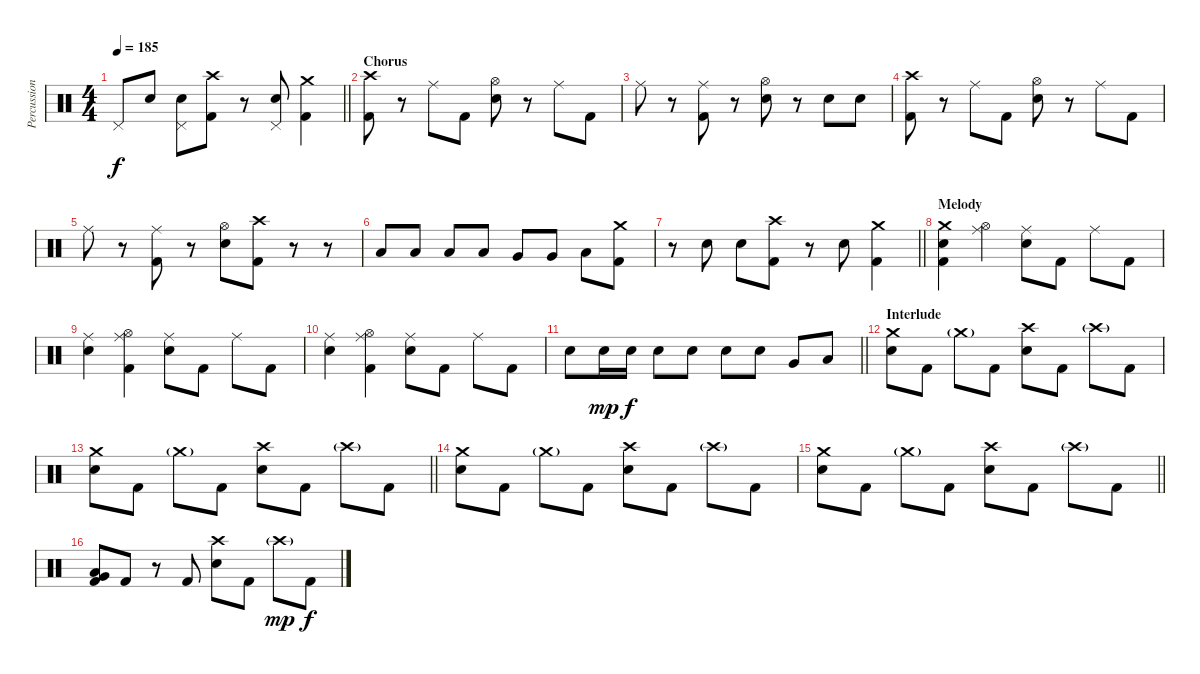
\track ("Percussion" "Percussion") {instrument percussion}
\staff {score}
\articulation defaults
\ts (4 4)
\tempo 185
\clef neutral
\barLineRight lightlight
\ks c "Pedal Hi-Hat (hit)".8{dy f} "Electric Snare (hit)".8
("Pedal Hi-Hat (hit)" "Electric Snare (hit)").8 ("Crash high (hit)" "Kick (hit) 2").8 r.8 ("Pedal Hi-Hat (hit)" "Electric Snare (hit)").8 ("Crash medium (hit)" "Kick (hit) 2").4 |
\section ("" "Chorus")
("Crash high (hit)" "Kick (hit) 2").8 r.8 "Ride (middle)".8 "Kick (hit) 2".8 ("Hi-Hat (open)" "Electric Snare (hit)").8 r.8 "Ride (middle)".8 "Kick (hit) 2".8 |
"Ride (middle)".8 r.8 ("Ride (middle)" "Kick (hit) 2").8 r.8 ("Hi-Hat (open)" "Electric Snare (hit)").8 r.8 "Electric Snare (hit)".8 "Electric Snare (hit)".8 |
("Crash high (hit)" "Kick (hit) 2").8 r.8 "Ride (middle)".8 "Kick (hit) 2".8 ("Hi-Hat (open)" "Electric Snare (hit)").8 r.8 "Ride (middle)".8 "Kick (hit) 2".8 |
"Ride (middle)".8 r.8 ("Ride (middle)" "Kick (hit) 2").8 r.8 ("Hi-Hat (open)" "Electric Snare (hit)").8 ("Crash high (hit)" "Kick (hit) 2").8 r.8 r.8 |
"Low Tom (hit)".8 "Low Tom (hit)".8 "Low Tom (hit)".8 "Low Tom (hit)".8 "Very Low Tom (hit)".8 "Very Low Tom (hit)".8 "Low Floor Tom (hit)".8 ("Crash medium (hit)" "Kick (hit) 2").8 |
\barLineRight lightlight
r.8 "Electric Snare (hit)".8 "Electric Snare (hit)".8 ("Crash high (hit)" "Kick (hit) 2").8 r.8 "Electric Snare (hit)".8 ("Crash medium (hit)" "Kick (hit) 2").4 |
\section ("" "Melody")
("Crash medium (hit)" "Electric Snare (hit)" "Kick (hit) 2").4 ("Hi-Hat (open)" "Ride (middle)").4 ("Ride (middle)" "Electric Snare (hit)").8 "Kick (hit) 2".8 "Ride (middle)".8 "Kick (hit) 2".8 |
("Ride (middle)" "Electric Snare (hit)").4 ("Hi-Hat (open)" "Ride (middle)" "Kick (hit) 2").4 ("Ride (middle)" "Electric Snare (hit)").8 "Kick (hit) 2".8 "Ride (middle)".8 "Kick (hit) 2".8 |
("Ride (middle)" "Electric Snare (hit)").4 ("Hi-Hat (open)" "Ride (middle)" "Kick (hit) 2").4 ("Ride (middle)" "Electric Snare (hit)").8 "Kick (hit) 2".8 "Ride (middle)".8 "Kick (hit) 2".8 |
\barLineRight lightlight "Electric Snare (hit)".8 "Electric Snare (hit)".16{dy mp} "Electric Snare (hit)".16{dy f} "Electric Snare (hit)".8 "Electric Snare (hit)".8 "Electric Snare (hit)".8 "Electric Snare (hit)".8 "Very Low Tom (hit)".8 "Low Floor Tom (hit)".8
|
\section ("" "Interlude")
("Crash medium (hit)" "Electric Snare (hit)").8 "Kick (hit) 2".8 "Crash medium (hit)"{g}.8 "Kick (hit) 2".8 ("Crash high (hit)" "Electric Snare (hit)").8 "Kick (hit) 2".8 "Crash high (hit)"{g}.8 "Kick (hit) 2".8 |
\barLineRight lightlight
("Crash medium (hit)" "Electric Snare (hit)").8 "Kick (hit) 2".8 "Crash medium (hit)"{g}.8 "Kick (hit) 2".8 ("Crash high (hit)" "Electric Snare (hit)").8 "Kick (hit) 2".8 "Crash high (hit)"{g}.8 "Kick (hit) 2".8 |
("Crash medium (hit)" "Electric Snare (hit)").8 "Kick (hit) 2".8 "Crash medium (hit)"{g}.8 "Kick (hit) 2".8 ("Crash high (hit)" "Electric Snare (hit)").8 "Kick (hit) 2".8 "Crash high (hit)"{g}.8 "Kick (hit) 2".8 |
\barLineRight lightlight
("Crash medium (hit)" "Electric Snare (hit)").8 "Kick (hit) 2".8 "Crash medium (hit)"{g}.8 "Kick (hit) 2".8 ("Crash high (hit)" "Electric Snare (hit)").8 "Kick (hit) 2".8 "Crash high (hit)"{g}.8 "Kick (hit) 2".8 |
("Low Floor Tom (hit)" "Very Low Tom (hit)" "Kick (hit) 2").8 "Kick (hit) 2".8 r.8 "Kick (hit) 2".8 ("Crash high (hit)" "Electric Snare (hit)").8 "Kick (hit) 2".8 "Crash high (hit)"{g}.8{dy mp} "Kick (hit) 2".8{dy f}
